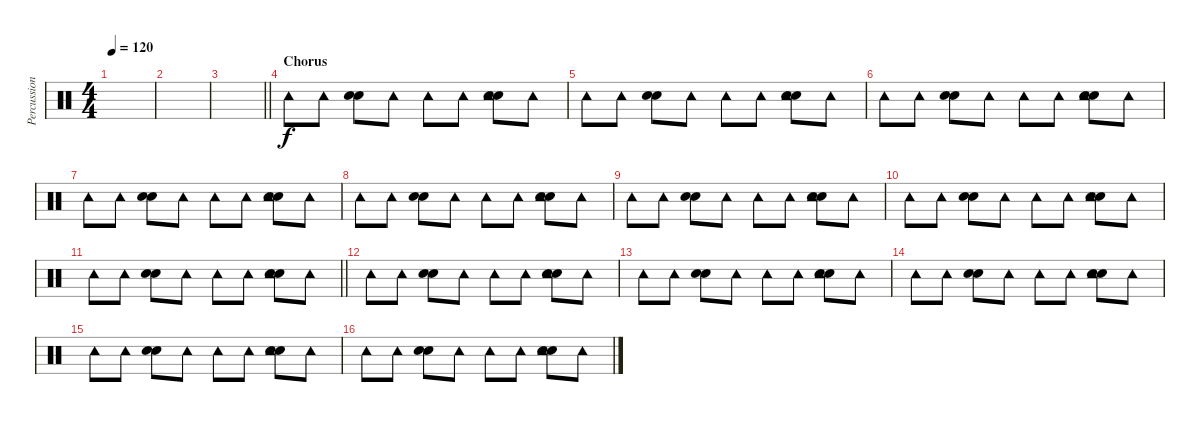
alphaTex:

\track ("Percussion" "Percussion") {instrument percussion}
\staff {score}
\articulation defaults
\ts (4 4)
\tempo 120
\clef neutral
\ks c
|
|
\barLineRight lightlight
|
\section ("" "Chorus")
"Tambourine (hit)".8 "Tambourine (hit)".8 ("Snare (hit) 2" "Snare (hit) 2").8 "Tambourine (hit)".8 "Tambourine (hit)".8 "Tambourine (hit)".8 ("Snare (hit) 2" "Snare (hit) 2" "Tambourine (hit)").8 "Tambourine (hit)".8 |
"Tambourine (hit)".8 "Tambourine (hit)".8 ("Snare (hit) 2" "Snare (hit) 2").8 "Tambourine (hit)".8 "Tambourine (hit)".8 "Tambourine (hit)".8 ("Snare (hit) 2" "Snare (hit) 2" "Tambourine (hit)").8 "Tambourine (hit)".8 |
"Tambourine (hit)".8 "Tambourine (hit)".8 ("Snare (hit) 2" "Snare (hit) 2").8 "Tambourine (hit)".8 "Tambourine (hit)".8 "Tambourine (hit)".8 ("Snare (hit) 2" "Snare (hit) 2" "Tambourine (hit)").8 "Tambourine (hit)".8 |
"Tambourine (hit)".8 "Tambourine (hit)".8 ("Snare (hit) 2" "Snare (hit) 2").8 "Tambourine (hit)".8 "Tambourine (hit)".8 "Tambourine (hit)".8 ("Snare (hit) 2" "Snare (hit) 2" "Tambourine (hit)").8 "Tambourine (hit)".8 |
"Tambourine (hit)".8 "Tambourine (hit)".8 ("Snare (hit) 2" "Snare (hit) 2").8 "Tambourine (hit)".8 "Tambourine (hit)".8 "Tambourine (hit)".8 ("Snare (hit) 2" "Snare (hit) 2" "Tambourine (hit)").8 "Tambourine (hit)".8 |
"Tambourine (hit)".8 "Tambourine (hit)".8 ("Snare (hit) 2" "Snare (hit) 2").8 "Tambourine (hit)".8 "Tambourine (hit)".8 "Tambourine (hit)".8 ("Snare (hit) 2" "Snare (hit) 2" "Tambourine (hit)").8 "Tambourine (hit)".8 |
"Tambourine (hit)".8 "Tambourine (hit)".8 ("Snare (hit) 2" "Snare (hit) 2").8 "Tambourine (hit)".8 "Tambourine (hit)".8 "Tambourine (hit)".8 ("Snare (hit) 2" "Snare (hit) 2" "Tambourine (hit)").8 "Tambourine (hit)".8 |
\barLineRight lightlight "Tambourine (hit)".8 "Tambourine (hit)".8
("Snare (hit) 2" "Snare (hit) 2").8 "Tambourine (hit)".8 "Tambourine (hit)".8 "Tambourine (hit)".8 ("Snare (hit) 2" "Snare (hit) 2" "Tambourine (hit)").8 "Tambourine (hit)".8 |
"Tambourine (hit)".8 "Tambourine (hit)".8 ("Snare (hit) 2" "Snare (hit) 2").8 "Tambourine (hit)".8 "Tambourine (hit)".8 "Tambourine (hit)".8 ("Snare (hit) 2" "Snare (hit) 2" "Tambourine (hit)").8 "Tambourine (hit)".8 |
"Tambourine (hit)".8 "Tambourine (hit)".8 ("Snare (hit) 2" "Snare (hit) 2").8 "Tambourine (hit)".8 "Tambourine (hit)".8 "Tambourine (hit)".8 ("Snare (hit) 2" "Snare (hit) 2" "Tambourine (hit)").8 "Tambourine (hit)".8 |
"Tambourine (hit)".8 "Tambourine (hit)".8 ("Snare (hit) 2" "Snare (hit) 2").8 "Tambourine (hit)".8 "Tambourine (hit)".8 "Tambourine (hit)".8 ("Snare (hit) 2" "Snare (hit) 2" "Tambourine (hit)").8 "Tambourine (hit)".8 |
"Tambourine (hit)".8 "Tambourine (hit)".8 ("Snare (hit) 2" "Snare (hit) 2").8 "Tambourine (hit)".8 "Tambourine (hit)".8 "Tambourine (hit)".8 ("Snare (hit) 2" "Snare (hit) 2" "Tambourine (hit)").8 "Tambourine (hit)".8 |
"Tambourine (hit)".8 "Tambourine (hit)".8 ("Snare (hit) 2" "Snare (hit) 2").8 "Tambourine (hit)".8 "Tambourine (hit)".8 "Tambourine (hit)".8 ("Snare (hit) 2" "Snare (hit) 2" "Tambourine (hit)").8 "Tambourine (hit)".8
